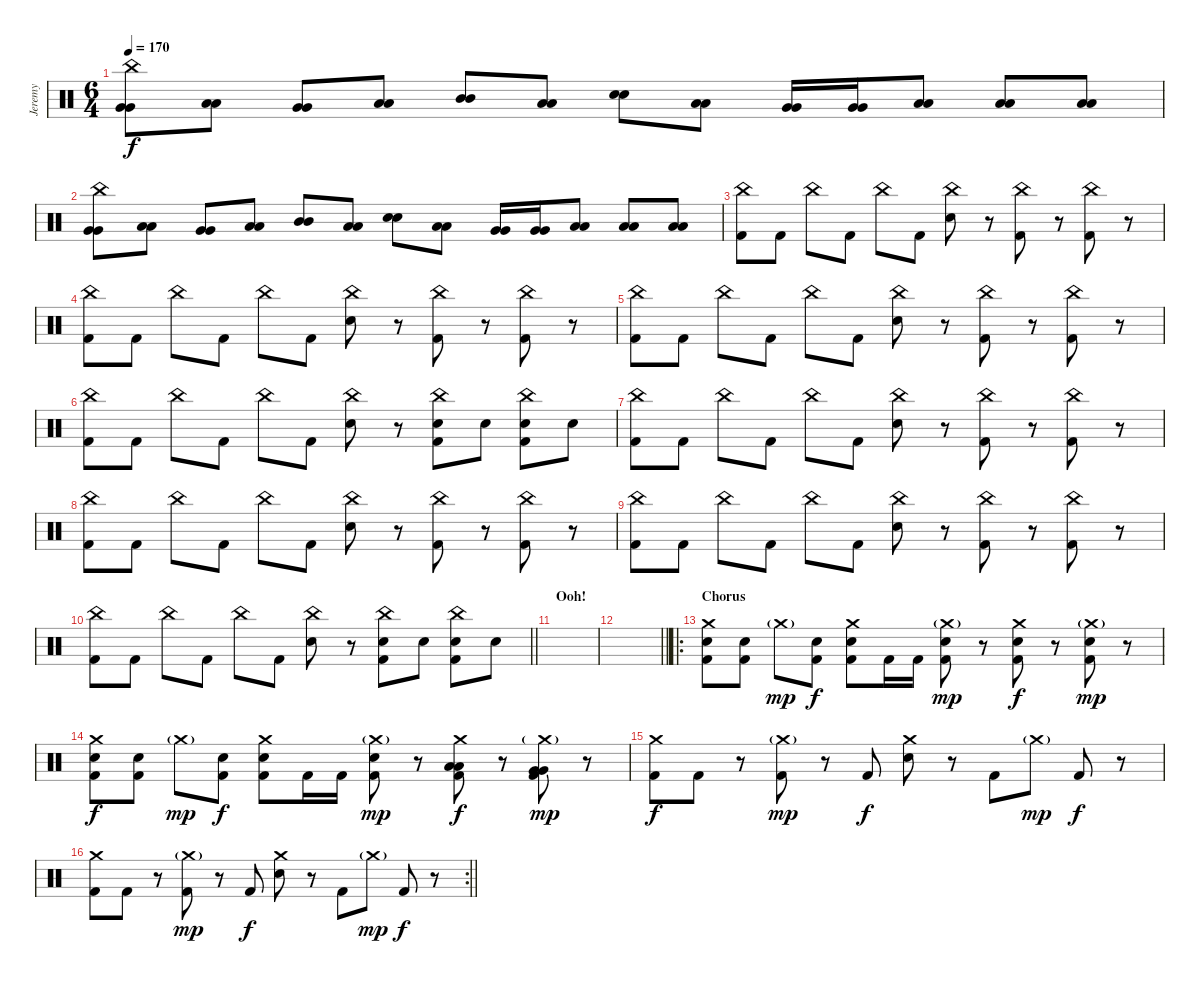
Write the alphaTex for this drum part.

\track ("Jeremy" "Jeremy") {instrument percussion}
\staff {score}
\articulation defaults
\ts (6 4)
\tempo 170
\clef neutral
\ks c
("China (hit)" "Very Low Tom (hit)" "Very Low Tom (hit)").8{dy f} ("Low Floor Tom (hit)" "Low Floor Tom (hit)").8 ("Very Low Tom (hit)" "Very Low Tom (hit)").8 ("Low Tom (hit)" "Low Tom (hit)").8 ("Mid Tom (hit)" "Mid Tom (hit)").8 ("Low Tom (hit)" "Low Tom (hit)").8 ("Snare (hit) 2" "Snare (hit) 2").8 ("Low Tom (hit)" "Low Tom (hit)").8 ("Very Low Tom (hit)" "Very Low Tom (hit)").16 ("Very Low Tom (hit)" "Very Low Tom (hit)").16 ("Low Floor Tom (hit)" "Low Floor Tom (hit)").8 ("Low Floor Tom (hit)" "Low Floor Tom (hit)").8 ("Low Floor Tom (hit)" "Low Floor Tom (hit)").8 |
("China (hit)" "Very Low Tom (hit)" "Very Low Tom (hit)").8 ("Low Floor Tom (hit)" "Low Floor Tom (hit)").8 ("Very Low Tom (hit)" "Very Low Tom (hit)").8 ("Low Tom (hit)" "Low Tom (hit)").8 ("Mid Tom (hit)" "Mid Tom (hit)").8 ("Low Tom (hit)" "Low Tom (hit)").8 ("Snare (hit) 2" "Snare (hit) 2").8 ("Low Tom (hit)" "Low Tom (hit)").8 ("Very Low Tom (hit)" "Very Low Tom (hit)").16 ("Very Low Tom (hit)" "Very Low Tom (hit)").16 ("Low Floor Tom (hit)" "Low Floor Tom (hit)").8 ("Low Floor Tom (hit)" "Low Floor Tom (hit)").8 ("Low Floor Tom (hit)" "Low Floor Tom (hit)").8 |
("China (hit)" "Kick (hit) 2").8 "Kick (hit) 2".8 "China (hit)".8 "Kick (hit) 2".8 "China (hit)".8 "Kick (hit) 2".8 ("China (hit)" "Electric Snare (hit)").8 r.8 ("China (hit)" "Kick (hit) 2").8 r.8 ("China (hit)" "Kick (hit) 2").8 r.8 |
("China (hit)" "Kick (hit) 2").8 "Kick (hit) 2".8 "China (hit)".8 "Kick (hit) 2".8 "China (hit)".8 "Kick (hit) 2".8 ("China (hit)" "Electric Snare (hit)").8 r.8 ("China (hit)" "Kick (hit) 2").8 r.8 ("China (hit)" "Kick (hit) 2").8 r.8 |
("China (hit)" "Kick (hit) 2").8 "Kick (hit) 2".8 "China (hit)".8 "Kick (hit) 2".8 "China (hit)".8 "Kick (hit) 2".8 ("China (hit)" "Electric Snare (hit)").8 r.8 ("China (hit)" "Kick (hit) 2").8 r.8 ("China (hit)" "Kick (hit) 2").8 r.8 |
("China (hit)" "Kick (hit) 2").8 "Kick (hit) 2".8 "China (hit)".8 "Kick (hit) 2".8 "China (hit)".8 "Kick (hit) 2".8 ("China (hit)" "Electric Snare (hit)").8 r.8 ("China (hit)" "Electric Snare (hit)" "Kick (hit) 2").8 "Electric Snare (hit)".8 ("China (hit)" "Electric Snare (hit)" "Kick (hit) 2").8 "Electric Snare (hit)".8 |
("China (hit)" "Kick (hit) 2").8 "Kick (hit) 2".8 "China (hit)".8 "Kick (hit) 2".8 "China (hit)".8 "Kick (hit) 2".8 ("China (hit)" "Electric Snare (hit)").8 r.8 ("China (hit)" "Kick (hit) 2").8 r.8 ("China (hit)" "Kick (hit) 2").8 r.8 |
("China (hit)" "Kick (hit) 2").8 "Kick (hit) 2".8 "China (hit)".8 "Kick (hit) 2".8 "China (hit)".8 "Kick (hit) 2".8 ("China (hit)" "Electric Snare (hit)").8 r.8 ("China (hit)" "Kick (hit) 2").8 r.8 ("China (hit)" "Kick (hit) 2").8 r.8 |
("China (hit)" "Kick (hit) 2").8 "Kick (hit) 2".8 "China (hit)".8 "Kick (hit) 2".8 "China (hit)".8 "Kick (hit) 2".8 ("China (hit)" "Electric Snare (hit)").8 r.8 ("China (hit)" "Kick (hit) 2").8 r.8 ("China (hit)" "Kick (hit) 2").8 r.8 |
\barLineRight lightlight
("China (hit)" "Kick (hit) 2").8 "Kick (hit) 2".8 "China (hit)".8 "Kick (hit) 2".8 "China (hit)".8 "Kick (hit) 2".8 ("China (hit)" "Electric Snare (hit)").8 r.8 ("China (hit)" "Electric Snare (hit)" "Kick (hit) 2").8 "Electric Snare (hit)".8 ("China (hit)" "Electric Snare (hit)" "Kick (hit) 2").8 "Electric Snare (hit)".8 |
\section ("" "Ooh!")
|
\barLineRight lightlight
|
\ro
\section ("" "Chorus")
("Crash medium (hit)" "Electric Snare (hit)" "Kick (hit) 2").8 ("Electric Snare (hit)" "Kick (hit) 2").8 "Crash medium (hit)"{g}.8{dy mp} ("Electric Snare (hit)" "Kick (hit) 2").8{dy f} ("Crash medium (hit)" "Electric Snare (hit)" "Kick (hit) 2").8 "Kick (hit) 2".16 "Kick (hit) 2".16 ("Crash medium (hit)"{g} "Electric Snare (hit)" "Kick (hit) 2").8{dy mp} r.8 ("Crash medium (hit)" "Electric Snare (hit)" "Kick (hit) 2").8{dy f} r.8 ("Crash medium (hit)"{g} "Electric Snare (hit)" "Kick (hit) 2").8{dy mp} r.8 |
("Crash medium (hit)" "Electric Snare (hit)" "Kick (hit) 2").8{dy f} ("Electric Snare (hit)" "Kick (hit) 2").8 "Crash medium (hit)"{g}.8{dy mp} ("Electric Snare (hit)" "Kick (hit) 2").8{dy f} ("Crash medium (hit)" "Electric Snare (hit)" "Kick (hit) 2").8 "Kick (hit) 2".16 "Kick (hit) 2".16 ("Crash medium (hit)"{g} "Electric Snare (hit)" "Kick (hit) 2").8{dy mp} r.8 ("Crash medium (hit)" "Low Tom (hit)" "Low Tom (hit)" "Kick (hit) 2").8{dy f} r.8 ("Crash medium (hit)"{g} "Very Low Tom (hit)" "Very Low Tom (hit)" "Kick (hit) 2").8{dy mp} r.8 |
("Crash medium (hit)" "Kick (hit) 2").8{dy f} "Kick (hit) 2".8 r.8 ("Crash medium (hit)"{g} "Kick (hit) 2").8{dy mp} r.8 "Kick (hit) 2".8{dy f} ("Crash medium (hit)" "Electric Snare (hit)").8 r.8 "Kick (hit) 2".8 "Crash medium (hit)"{g}.8{dy mp} "Kick (hit) 2".8{dy f} r.8 |
\rc 2
\barLineRight lightlight
("Crash medium (hit)" "Kick (hit) 2").8 "Kick (hit) 2".8 r.8 ("Crash medium (hit)"{g} "Kick (hit) 2").8{dy mp} r.8 "Kick (hit) 2".8{dy f} ("Crash medium (hit)" "Electric Snare (hit)").8 r.8 "Kick (hit) 2".8 "Crash medium (hit)"{g}.8{dy mp} "Kick (hit) 2".8{dy f} r.8
